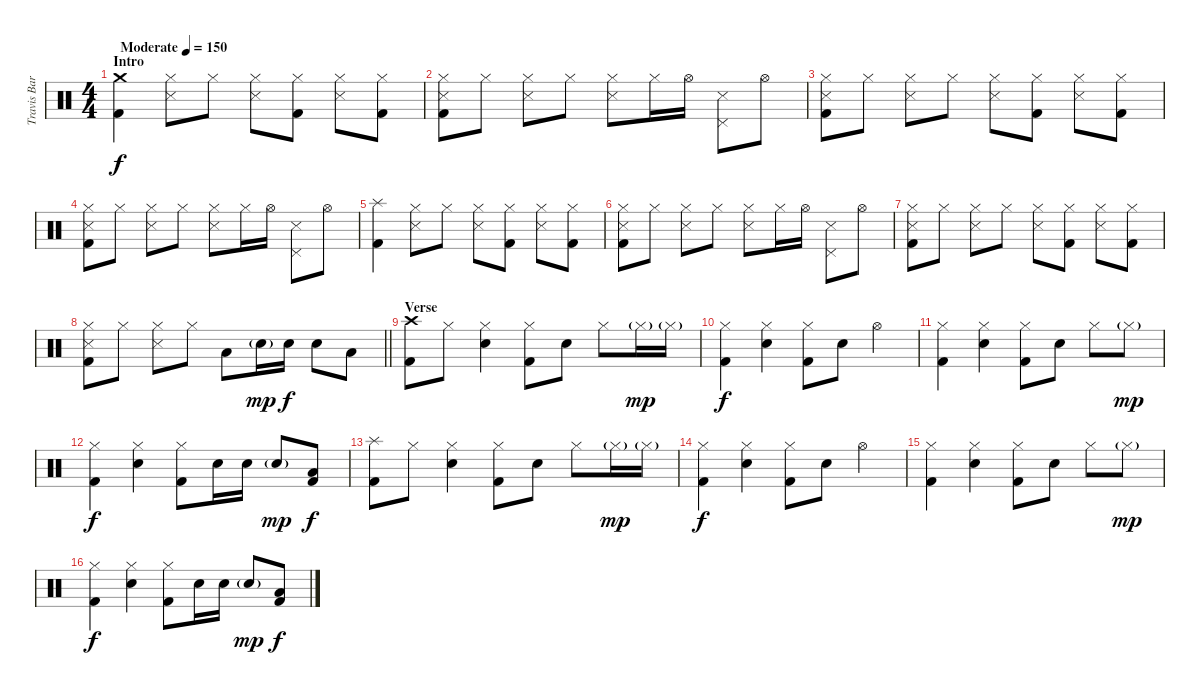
\track ("Travis Barker - Drums" "Travis Bar") {instrument percussion}
\staff {score}
\articulation defaults
\ts (4 4)
\section ("" "Intro")
\tempo (150 "Moderate")
\clef neutral
\ks c
("Crash medium (hit)" "Kick (hit) 2").4{dy f} ("Hi-Hat (closed)" "Snare (side stick) 3").8 "Hi-Hat (closed)".8 ("Hi-Hat (closed)" "Snare (side stick) 3").8 ("Hi-Hat (closed)" "Kick (hit) 2").8 ("Hi-Hat (closed)" "Snare (side stick) 3").8 ("Hi-Hat (closed)" "Kick (hit) 2").8 |
("Hi-Hat (closed)" "Snare (side stick) 3" "Kick (hit) 2").8 "Hi-Hat (closed)".8 ("Hi-Hat (closed)" "Snare (side stick) 3").8 "Hi-Hat (closed)".8 ("Hi-Hat (closed)" "Snare (side stick) 3").8 "Hi-Hat (closed)".16 "Hi-Hat (open)".16 ("Pedal Hi-Hat (hit)" "Snare (side stick) 3").8 "Hi-Hat (open)".8 |
("Hi-Hat (closed)" "Snare (side stick) 3" "Kick (hit) 2").8 "Hi-Hat (closed)".8 ("Hi-Hat (closed)" "Snare (side stick) 3").8 "Hi-Hat (closed)".8 ("Hi-Hat (closed)" "Snare (side stick) 3").8 ("Hi-Hat (closed)" "Kick (hit) 2").8 ("Hi-Hat (closed)" "Snare (side stick) 3").8 ("Hi-Hat (closed)" "Kick (hit) 2").8 |
("Hi-Hat (closed)" "Snare (side stick) 3" "Kick (hit) 2").8 "Hi-Hat (closed)".8 ("Hi-Hat (closed)" "Snare (side stick) 3").8 "Hi-Hat (closed)".8 ("Hi-Hat (closed)" "Snare (side stick) 3").8 "Hi-Hat (closed)".16 "Hi-Hat (open)".16 ("Pedal Hi-Hat (hit)" "Snare (side stick) 3").8 "Hi-Hat (open)".8 |
("Splash (hit)" "Kick (hit) 2").4 ("Hi-Hat (closed)" "Snare (side stick) 3").8 "Hi-Hat (closed)".8 ("Hi-Hat (closed)" "Snare (side stick) 3").8 ("Hi-Hat (closed)" "Kick (hit) 2").8 ("Hi-Hat (closed)" "Snare (side stick) 3").8 ("Hi-Hat (closed)" "Kick (hit) 2").8 |
("Hi-Hat (closed)" "Snare (side stick) 3" "Kick (hit) 2").8 "Hi-Hat (closed)".8 ("Hi-Hat (closed)" "Snare (side stick) 3").8 "Hi-Hat (closed)".8 ("Hi-Hat (closed)" "Snare (side stick) 3").8 "Hi-Hat (closed)".16 "Hi-Hat (open)".16 ("Pedal Hi-Hat (hit)" "Snare (side stick) 3").8 "Hi-Hat (open)".8 |
("Hi-Hat (closed)" "Snare (side stick) 3" "Kick (hit) 2").8 "Hi-Hat (closed)".8 ("Hi-Hat (closed)" "Snare (side stick) 3").8 "Hi-Hat (closed)".8 ("Hi-Hat (closed)" "Snare (side stick) 3").8 ("Hi-Hat (closed)" "Kick (hit) 2").8 ("Hi-Hat (closed)" "Snare (side stick) 3").8 ("Hi-Hat (closed)" "Kick (hit) 2").8 |
\barLineRight lightlight
("Hi-Hat (closed)" "Snare (side stick) 3" "Kick (hit) 2").8 "Hi-Hat (closed)".8 ("Hi-Hat (closed)" "Snare (side stick) 3").8 "Hi-Hat (closed)".8 "Low Tom (hit)".8 "Electric Snare (hit)"{g}.16{dy mp} "Electric Snare (hit)".16{dy f} "Electric Snare (hit)".8 "Low Tom (hit)".8 |
\section ("" "Verse")
("Crash high (hit)" "Kick (hit) 2").8 "Hi-Hat (closed)".8 ("Hi-Hat (closed)" "Electric Snare (hit)").4 ("Hi-Hat (closed)" "Kick (hit) 2").8 "Electric Snare (hit)".8 "Hi-Hat (closed)".8 "Hi-Hat (closed)"{g}.16{dy mp} "Hi-Hat (closed)"{g}.16 |
("Hi-Hat (closed)" "Kick (hit) 2").4{dy f} ("Hi-Hat (closed)" "Electric Snare (hit)").4 ("Hi-Hat (closed)" "Kick (hit) 2").8 "Electric Snare (hit)".8 "Hi-Hat (open)".4 |
("Hi-Hat (closed)" "Kick (hit) 2").4 ("Hi-Hat (closed)" "Electric Snare (hit)").4 ("Hi-Hat (closed)" "Kick (hit) 2").8 "Electric Snare (hit)".8 "Hi-Hat (closed)".8 "Hi-Hat (closed)"{g}.8{dy mp} |
("Hi-Hat (closed)" "Kick (hit) 2").4{dy f} ("Hi-Hat (closed)" "Electric Snare (hit)").4 ("Hi-Hat (closed)" "Kick (hit) 2").8 "Electric Snare (hit)".16 "Electric Snare (hit)".16 "Electric Snare (hit)"{g}.8{dy mp} ("Low Tom (hit)" "Kick (hit) 2").8{dy f} |
("Splash (hit)" "Kick (hit) 2").8 "Hi-Hat (closed)".8 ("Hi-Hat (closed)" "Electric Snare (hit)").4 ("Hi-Hat (closed)" "Kick (hit) 2").8 "Electric Snare (hit)".8 "Hi-Hat (closed)".8 "Hi-Hat (closed)"{g}.16{dy mp} "Hi-Hat (closed)"{g}.16 |
("Hi-Hat (closed)" "Kick (hit) 2").4{dy f} ("Hi-Hat (closed)" "Electric Snare (hit)").4 ("Hi-Hat (closed)" "Kick (hit) 2").8 "Electric Snare (hit)".8 "Hi-Hat (open)".4 |
("Hi-Hat (closed)" "Kick (hit) 2").4 ("Hi-Hat (closed)" "Electric Snare (hit)").4 ("Hi-Hat (closed)" "Kick (hit) 2").8 "Electric Snare (hit)".8 "Hi-Hat (closed)".8 "Hi-Hat (closed)"{g}.8{dy mp} |
("Hi-Hat (closed)" "Kick (hit) 2").4{dy f} ("Hi-Hat (closed)" "Electric Snare (hit)").4 ("Hi-Hat (closed)" "Kick (hit) 2").8 "Electric Snare (hit)".16 "Electric Snare (hit)".16 "Electric Snare (hit)"{g}.8{dy mp} ("Low Tom (hit)" "Kick (hit) 2").8{dy f}
